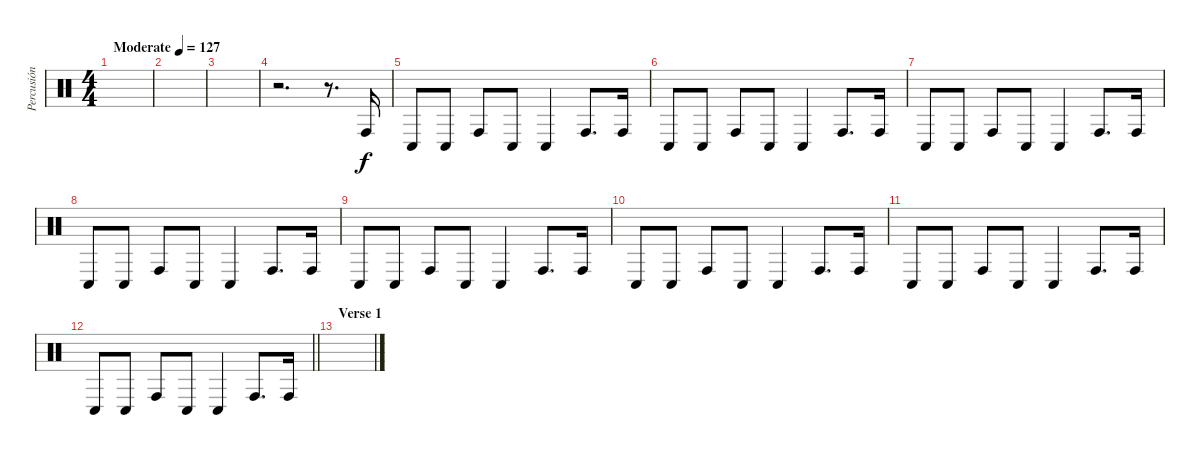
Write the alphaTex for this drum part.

\track ("Percusión" "Percusión") {instrument percussion}
\staff {score}
\articulation defaults
\ts (4 4)
\tempo (127 "Moderate")
\clef neutral
\ks c
|
|
|
r.2{d} r.8{d} "Conga high (hit)".16 |
"Conga low (hit)".8 "Conga low (hit)".8 "Conga high (hit)".8 "Conga low (hit)".8 "Conga low (hit)".4 "Conga high (hit)".8{d} "Conga high (hit)".16 |
"Conga low (hit)".8 "Conga low (hit)".8 "Conga high (hit)".8 "Conga low (hit)".8 "Conga low (hit)".4 "Conga high (hit)".8{d} "Conga high (hit)".16 |
"Conga low (hit)".8 "Conga low (hit)".8 "Conga high (hit)".8 "Conga low (hit)".8 "Conga low (hit)".4 "Conga high (hit)".8{d} "Conga high (hit)".16 |
"Conga low (hit)".8 "Conga low (hit)".8 "Conga high (hit)".8 "Conga low (hit)".8 "Conga low (hit)".4 "Conga high (hit)".8{d} "Conga high (hit)".16 |
"Conga low (hit)".8 "Conga low (hit)".8 "Conga high (hit)".8 "Conga low (hit)".8 "Conga low (hit)".4 "Conga high (hit)".8{d} "Conga high (hit)".16 |
"Conga low (hit)".8 "Conga low (hit)".8 "Conga high (hit)".8 "Conga low (hit)".8 "Conga low (hit)".4 "Conga high (hit)".8{d} "Conga high (hit)".16 |
"Conga low (hit)".8 "Conga low (hit)".8 "Conga high (hit)".8 "Conga low (hit)".8 "Conga low (hit)".4 "Conga high (hit)".8{d} "Conga high (hit)".16 |
\barLineRight lightlight "Conga low (hit)".8 "Conga low (hit)".8 "Conga high (hit)".8 "Conga low (hit)".8 "Conga low (hit)".4 "Conga high (hit)".8{d} "Conga high (hit)".16
|
\section ("" "Verse 1")
